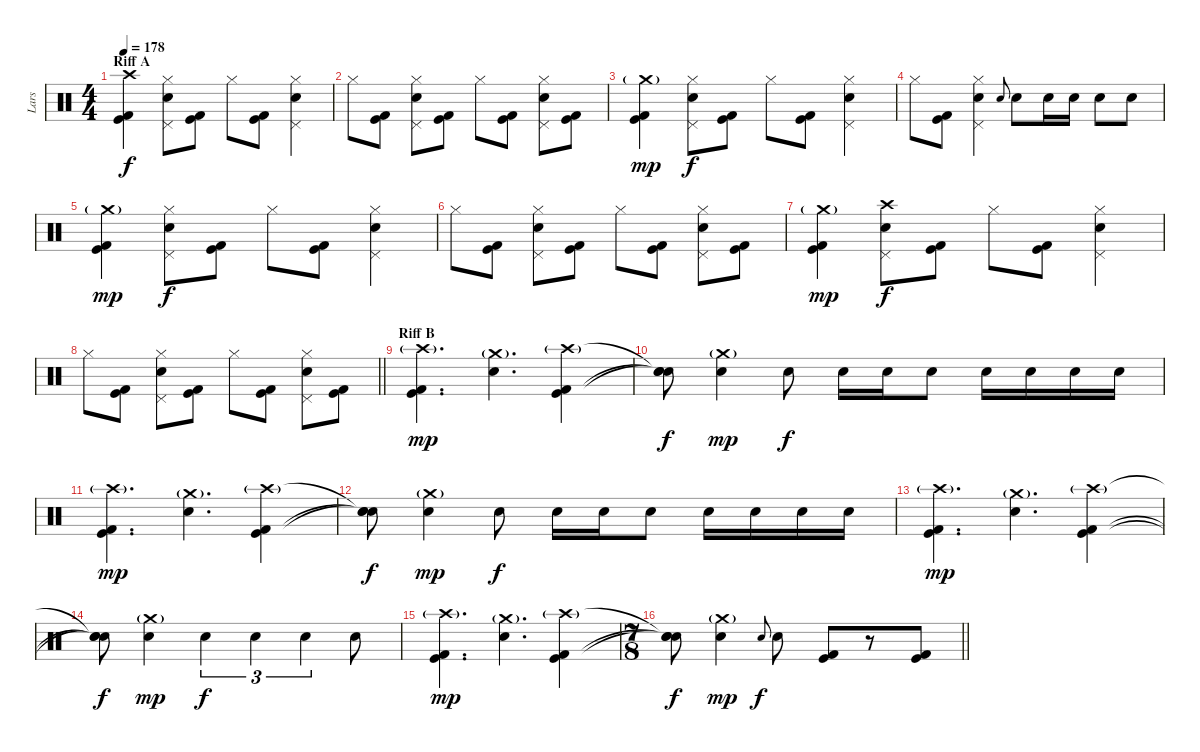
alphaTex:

\track ("Lars" "Lars") {instrument percussion}
\staff {score}
\articulation defaults
\ts (4 4)
\section ("" "Riff A")
\tempo 178
\clef neutral
\ks c
("Crash high (hit)" "Kick (hit)" "Kick (hit) 2").4{dy f} ("Hi-Hat (closed)" "Pedal Hi-Hat (hit)" "Electric Snare (hit)").8 ("Kick (hit)" "Kick (hit) 2").8 "Hi-Hat (closed)".8 ("Kick (hit)" "Kick (hit) 2").8 ("Hi-Hat (closed)" "Pedal Hi-Hat (hit)" "Electric Snare (hit)").4 |
"Hi-Hat (closed)".8 ("Kick (hit)" "Kick (hit) 2").8 ("Hi-Hat (closed)" "Pedal Hi-Hat (hit)" "Electric Snare (hit)").8 ("Kick (hit)" "Kick (hit) 2").8 "Hi-Hat (closed)".8 ("Kick (hit)" "Kick (hit) 2").8 ("Hi-Hat (closed)" "Pedal Hi-Hat (hit)" "Electric Snare (hit)").8 ("Kick (hit)" "Kick (hit) 2").8 |
("Crash medium (hit)"{g} "Kick (hit)" "Kick (hit) 2").4{dy mp} ("Hi-Hat (closed)" "Pedal Hi-Hat (hit)" "Electric Snare (hit)").8{dy f} ("Kick (hit)" "Kick (hit) 2").8 "Hi-Hat (closed)".8 ("Kick (hit)" "Kick (hit) 2").8 ("Hi-Hat (closed)" "Pedal Hi-Hat (hit)" "Electric Snare (hit)").4 |
"Hi-Hat (closed)".8 ("Kick (hit)" "Kick (hit) 2").8 ("Hi-Hat (closed)" "Pedal Hi-Hat (hit)" "Electric Snare (hit)").4 "Electric Snare (hit)".8{gr onbeat} "Electric Snare (hit)".8 "Electric Snare (hit)".16 "Electric Snare (hit)".16 "Electric Snare (hit)".8 "Electric Snare (hit)".8 |
("Crash medium (hit)"{g} "Kick (hit)" "Kick (hit) 2").4{dy mp} ("Hi-Hat (closed)" "Pedal Hi-Hat (hit)" "Electric Snare (hit)").8{dy f} ("Kick (hit)" "Kick (hit) 2").8 "Hi-Hat (closed)".8 ("Kick (hit)" "Kick (hit) 2").8 ("Hi-Hat (closed)" "Pedal Hi-Hat (hit)" "Electric Snare (hit)").4 |
"Hi-Hat (closed)".8 ("Kick (hit)" "Kick (hit) 2").8 ("Hi-Hat (closed)" "Pedal Hi-Hat (hit)" "Electric Snare (hit)").8 ("Kick (hit)" "Kick (hit) 2").8 "Hi-Hat (closed)".8 ("Kick (hit)" "Kick (hit) 2").8 ("Hi-Hat (closed)" "Pedal Hi-Hat (hit)" "Electric Snare (hit)").8 ("Kick (hit)" "Kick (hit) 2").8 |
("Crash medium (hit)"{g} "Kick (hit)" "Kick (hit) 2").4{dy mp} ("Crash high (hit)" "Pedal Hi-Hat (hit)" "Electric Snare (hit)").8{dy f} ("Kick (hit)" "Kick (hit) 2").8 "Hi-Hat (closed)".8 ("Kick (hit)" "Kick (hit) 2").8 ("Hi-Hat (closed)" "Pedal Hi-Hat (hit)" "Electric Snare (hit)").4 |
\barLineRight lightlight "Hi-Hat (closed)".8
("Kick (hit)" "Kick (hit) 2").8 ("Hi-Hat (closed)" "Pedal Hi-Hat (hit)" "Electric Snare (hit)").8 ("Kick (hit)" "Kick (hit) 2").8 "Hi-Hat (closed)".8 ("Kick (hit)" "Kick (hit) 2").8 ("Hi-Hat (closed)" "Pedal Hi-Hat (hit)" "Electric Snare (hit)").8 ("Kick (hit)" "Kick (hit) 2").8 |
\section ("" "Riff B")
("Crash high (hit)"{g} "Kick (hit)" "Kick (hit) 2").4{d dy mp} ("Crash medium (hit)"{g} "Electric Snare (hit)").4{d} ("Crash high (hit)"{g} "Kick (hit)" "Kick (hit) 2").4 |
("Snare (hit)"{t} "Snare (hit)"{t} "Snare (hit)"{t}).8{dy f} ("Crash medium (hit)"{g} "Electric Snare (hit)").4{dy mp} "Electric Snare (hit)".8{dy f} "Electric Snare (hit)".16 "Electric Snare (hit)".16 "Electric Snare (hit)".8 "Electric Snare (hit)".16 "Electric Snare (hit)".16 "Electric Snare (hit)".16 "Electric Snare (hit)".16 |
("Crash high (hit)"{g} "Kick (hit)" "Kick (hit) 2").4{d dy mp} ("Crash medium (hit)"{g} "Electric Snare (hit)").4{d} ("Crash high (hit)"{g} "Kick (hit)" "Kick (hit) 2").4 |
("Snare (hit)"{t} "Snare (hit)"{t} "Snare (hit)"{t}).8{dy f} ("Crash medium (hit)"{g} "Electric Snare (hit)").4{dy mp} "Electric Snare (hit)".8{dy f} "Electric Snare (hit)".16 "Electric Snare (hit)".16 "Electric Snare (hit)".8 "Electric Snare (hit)".16 "Electric Snare (hit)".16 "Electric Snare (hit)".16 "Electric Snare (hit)".16 |
("Crash high (hit)"{g} "Kick (hit)" "Kick (hit) 2").4{d dy mp} ("Crash medium (hit)"{g} "Electric Snare (hit)").4{d} ("Crash high (hit)"{g} "Kick (hit)" "Kick (hit) 2").4 |
("Snare (hit)"{t} "Snare (hit)"{t} "Snare (hit)"{t}).8{dy f} ("Crash medium (hit)"{g} "Electric Snare (hit)").4{dy mp} "Electric Snare (hit)".4{tu (3 2) dy f} "Electric Snare (hit)".4{tu (3 2)} "Electric Snare (hit)".4{tu (3 2)} "Electric Snare (hit)".8 |
("Crash high (hit)"{g} "Kick (hit)" "Kick (hit) 2").4{d dy mp} ("Crash medium (hit)"{g} "Electric Snare (hit)").4{d} ("Crash high (hit)"{g} "Kick (hit)" "Kick (hit) 2").4 |
\ts (7 8)
\barLineRight lightlight
("Snare (hit)"{t} "Snare (hit)"{t} "Snare (hit)"{t}).8{dy f} ("Crash medium (hit)"{g} "Electric Snare (hit)").4{dy mp} "Electric Snare (hit)".8{gr onbeat dy f} "Electric Snare (hit)".8 ("Kick (hit)" "Kick (hit) 2").8 r.8 ("Kick (hit)" "Kick (hit) 2").8
